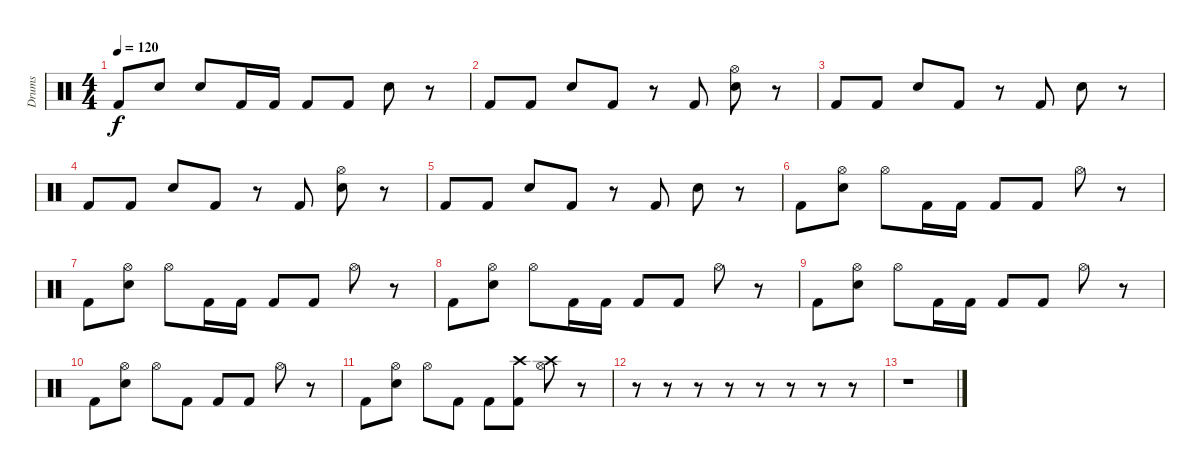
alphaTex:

\track ("Drums" "Drums") {instrument percussion}
\staff {score}
\articulation defaults
\ts (4 4)
\tempo 120
\clef neutral
\ks c "Kick (hit) 2".8{dy f} "Snare (hit) 2".8 "Snare (hit) 2".8 "Kick (hit) 2".16 "Kick (hit) 2".16 "Kick (hit) 2".8 "Kick (hit) 2".8 "Snare (hit) 2".8
r.8 |
"Kick (hit) 2".8 "Kick (hit) 2".8 "Snare (hit) 2".8 "Kick (hit) 2".8 r.8 "Kick (hit) 2".8 ("Snare (hit) 2" "Hi-Hat (open)").8 r.8 |
"Kick (hit) 2".8 "Kick (hit) 2".8 "Snare (hit) 2".8 "Kick (hit) 2".8 r.8 "Kick (hit) 2".8 "Snare (hit) 2".8 r.8 |
"Kick (hit) 2".8 "Kick (hit) 2".8 "Snare (hit) 2".8 "Kick (hit) 2".8 r.8 "Kick (hit) 2".8 ("Snare (hit) 2" "Hi-Hat (open)").8 r.8 |
"Kick (hit) 2".8 "Kick (hit) 2".8 "Snare (hit) 2".8 "Kick (hit) 2".8 r.8 "Kick (hit) 2".8 "Snare (hit) 2".8 r.8 |
"Kick (hit) 2".8 ("Snare (hit) 2" "Hi-Hat (open)").8 "Hi-Hat (open)".8 "Kick (hit) 2".16 "Kick (hit) 2".16 "Kick (hit) 2".8 "Kick (hit) 2".8 "Hi-Hat (open)".8 r.8 |
"Kick (hit) 2".8 ("Snare (hit) 2" "Hi-Hat (open)").8 "Hi-Hat (open)".8 "Kick (hit) 2".16 "Kick (hit) 2".16 "Kick (hit) 2".8 "Kick (hit) 2".8 "Hi-Hat (open)".8 r.8 |
"Kick (hit) 2".8 ("Snare (hit) 2" "Hi-Hat (open)").8 "Hi-Hat (open)".8 "Kick (hit) 2".16 "Kick (hit) 2".16 "Kick (hit) 2".8 "Kick (hit) 2".8 "Hi-Hat (open)".8 r.8 |
"Kick (hit) 2".8 ("Snare (hit) 2" "Hi-Hat (open)").8 "Hi-Hat (open)".8 "Kick (hit) 2".16 "Kick (hit) 2".16 "Kick (hit) 2".8 "Kick (hit) 2".8 "Hi-Hat (open)".8 r.8 |
"Kick (hit) 2".8 ("Hi-Hat (open)" "Snare (hit) 2").8 "Hi-Hat (open)".8 "Kick (hit) 2".8 "Kick (hit) 2".8 "Kick (hit) 2".8 "Hi-Hat (open)".8 r.8 |
"Kick (hit) 2".8 ("Snare (hit) 2" "Hi-Hat (open)").8 "Hi-Hat (open)".8 "Kick (hit) 2".8 "Kick (hit) 2".8 ("Crash high (hit)" "Kick (hit) 2").8 ("Crash high (hit)" "Hi-Hat (open)").8 r.8 |
r.8 r.8 r.8 r.8 r.8 r.8 r.8 r.8 |
r.1
